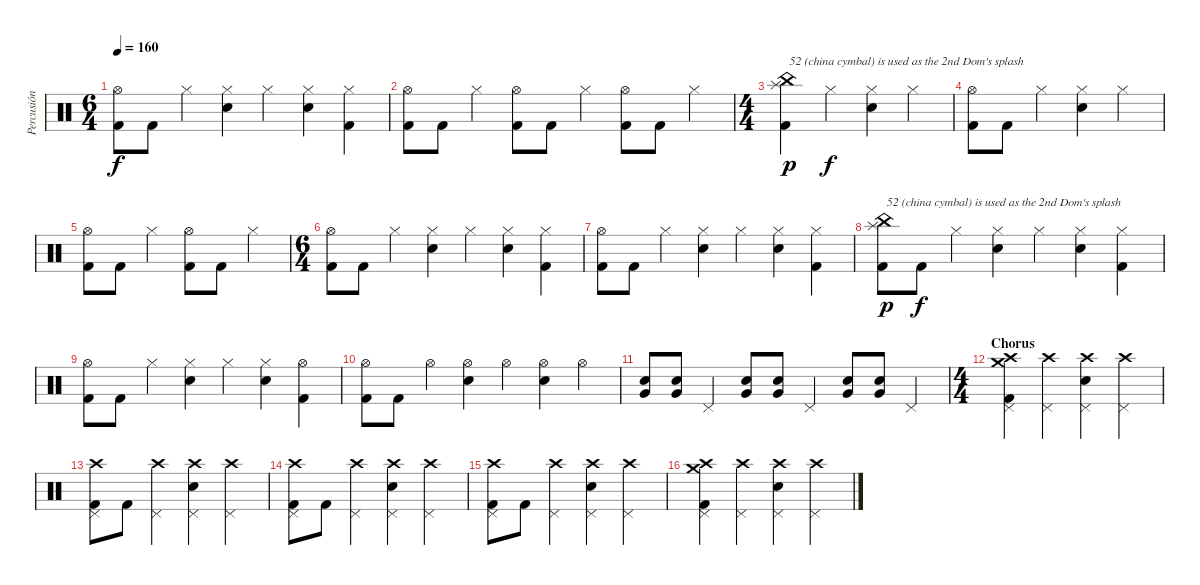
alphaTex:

\track ("Percusión" "Percusión") {instrument percussion}
\staff {score}
\articulation defaults
\ts (6 4)
\tempo 160
\clef neutral
\ks c
("Hi-Hat (open)" "Kick (hit) 2").8{dy f} "Kick (hit) 2".8 "Hi-Hat (closed)".4 ("Hi-Hat (closed)" "Snare (hit) 2").4 "Hi-Hat (closed)".4 ("Hi-Hat (closed)" "Snare (hit) 2").4 ("Hi-Hat (closed)" "Kick (hit) 2").4 |
("Hi-Hat (open)" "Kick (hit) 2").8 "Kick (hit) 2".8 "Hi-Hat (closed)".4 ("Hi-Hat (open)" "Kick (hit) 2").8 "Kick (hit) 2".8 "Hi-Hat (closed)".4 ("Hi-Hat (open)" "Kick (hit) 2").8 "Kick (hit) 2".8 "Hi-Hat (closed)".4 |
\ts (4 4)
("Splash (hit)" "China (hit)" "Kick (hit) 2").4{txt "52 (china cymbal) is used as the 2nd Dom's splash" dy p} "Hi-Hat (closed)".4{dy f} ("Hi-Hat (closed)" "Snare (hit) 2").4 "Hi-Hat (closed)".4 |
("Hi-Hat (open)" "Kick (hit) 2").8 "Kick (hit) 2".8 "Hi-Hat (closed)".4 ("Hi-Hat (closed)" "Snare (hit) 2").4 "Hi-Hat (closed)".4 |
("Hi-Hat (open)" "Kick (hit) 2").8 "Kick (hit) 2".8 "Hi-Hat (closed)".4 ("Hi-Hat (open)" "Kick (hit) 2").8 "Kick (hit) 2".8 "Hi-Hat (closed)".4 |
\ts (6 4)
("Hi-Hat (open)" "Kick (hit) 2").8 "Kick (hit) 2".8 "Hi-Hat (closed)".4 ("Hi-Hat (closed)" "Snare (hit) 2").4 "Hi-Hat (closed)".4 ("Hi-Hat (closed)" "Snare (hit) 2").4 ("Hi-Hat (closed)" "Kick (hit) 2").4 |
("Hi-Hat (open)" "Kick (hit) 2").8 "Kick (hit) 2".8 "Hi-Hat (closed)".4 ("Hi-Hat (closed)" "Snare (hit) 2").4 "Hi-Hat (closed)".4 ("Hi-Hat (closed)" "Snare (hit) 2").4 ("Hi-Hat (closed)" "Kick (hit) 2").4 |
("Splash (hit)" "China (hit)" "Kick (hit) 2").8{txt "52 (china cymbal) is used as the 2nd Dom's splash" dy p} "Kick (hit) 2".8{dy f} "Hi-Hat (closed)".4 ("Hi-Hat (closed)" "Snare (hit) 2").4 "Hi-Hat (closed)".4 ("Hi-Hat (closed)" "Snare (hit) 2").4 ("Hi-Hat (closed)" "Kick (hit) 2").4 |
("Hi-Hat (open)" "Kick (hit) 2").8 "Kick (hit) 2".8 "Hi-Hat (closed)".4 ("Hi-Hat (closed)" "Snare (hit) 2").4 "Hi-Hat (closed)".4 ("Hi-Hat (closed)" "Snare (hit) 2").4 ("Hi-Hat (open)" "Kick (hit) 2").4 |
("Hi-Hat (open)" "Kick (hit) 2").8 "Kick (hit) 2".8 "Hi-Hat (open)".4 ("Hi-Hat (open)" "Snare (hit) 2").4 "Hi-Hat (open)".4 ("Hi-Hat (open)" "Snare (hit) 2").4 "Hi-Hat (open)".4 |
("Snare (hit) 2" "Very Low Tom (hit)").8 ("Snare (hit) 2" "Very Low Tom (hit)").8 "Pedal Hi-Hat (hit)".4 ("Snare (hit) 2" "Very Low Tom (hit)").8 ("Snare (hit) 2" "Very Low Tom (hit)").8 "Pedal Hi-Hat (hit)".4 ("Snare (hit) 2" "Very Low Tom (hit)").8 ("Snare (hit) 2" "Very Low Tom (hit)").8 "Pedal Hi-Hat (hit)".4 |
\ts (4 4)
\section ("" "Chorus")
("Crash medium (hit)" "Crash high (hit)" "Pedal Hi-Hat (hit)" "Kick (hit) 2").4 ("Crash high (hit)" "Pedal Hi-Hat (hit)").4 ("Crash high (hit)" "Snare (hit) 2" "Pedal Hi-Hat (hit)").4 ("Crash high (hit)" "Pedal Hi-Hat (hit)").4 |
("Crash high (hit)" "Pedal Hi-Hat (hit)" "Kick (hit) 2").8 "Kick (hit) 2".8 ("Crash high (hit)" "Pedal Hi-Hat (hit)").4 ("Crash high (hit)" "Snare (hit) 2" "Pedal Hi-Hat (hit)").4 ("Crash high (hit)" "Pedal Hi-Hat (hit)").4 |
("Crash high (hit)" "Pedal Hi-Hat (hit)" "Kick (hit) 2").8 "Kick (hit) 2".8 ("Crash high (hit)" "Pedal Hi-Hat (hit)").4 ("Crash high (hit)" "Snare (hit) 2" "Pedal Hi-Hat (hit)").4 ("Crash high (hit)" "Pedal Hi-Hat (hit)").4 |
("Crash high (hit)" "Pedal Hi-Hat (hit)" "Kick (hit) 2").8 "Kick (hit) 2".8 ("Crash high (hit)" "Pedal Hi-Hat (hit)").4 ("Crash high (hit)" "Snare (hit) 2" "Pedal Hi-Hat (hit)").4 ("Crash high (hit)" "Pedal Hi-Hat (hit)").4 |
("Crash medium (hit)" "Crash high (hit)" "Pedal Hi-Hat (hit)" "Kick (hit) 2").4 ("Crash high (hit)" "Pedal Hi-Hat (hit)").4 ("Crash high (hit)" "Snare (hit) 2" "Pedal Hi-Hat (hit)").4 ("Crash high (hit)" "Pedal Hi-Hat (hit)").4
